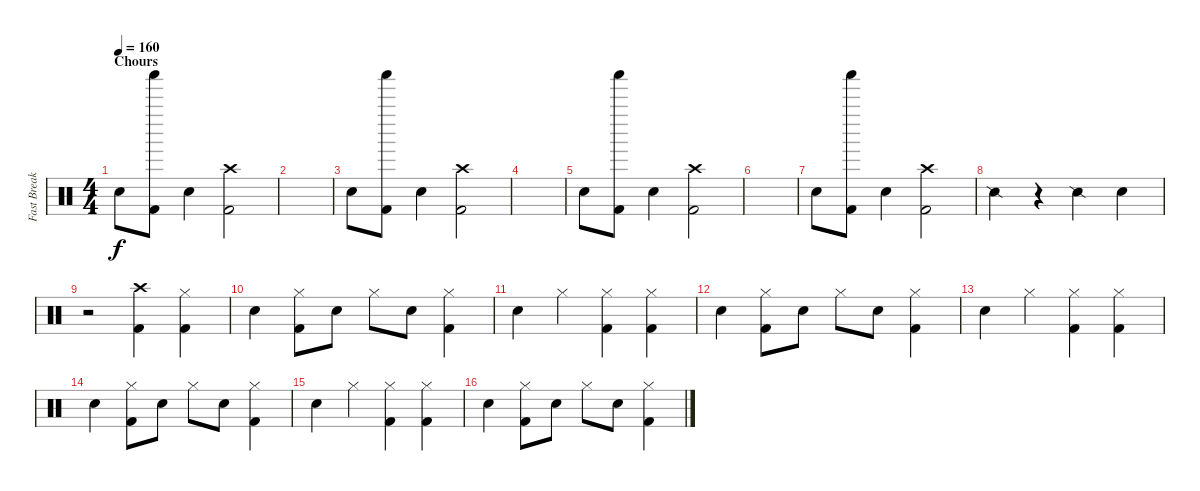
\track ("Fast Break Drums" "Fast Break") {instrument percussion}
\staff {score}
\articulation defaults
\ts (4 4)
\section ("" "Chours")
\tempo 160
\clef neutral
\ks c "Snare (hit) 2".8{dy f}
("Kick (hit) 2" "Shaker (hit)").8 "Snare (hit) 2".4 ("Kick (hit) 2" "Crash high (hit)").2 |
|
"Snare (hit) 2".8 ("Kick (hit) 2" "Shaker (hit)").8 "Snare (hit) 2".4 ("Kick (hit) 2" "Crash high (hit)").2 |
|
"Snare (hit) 2".8 ("Kick (hit) 2" "Shaker (hit)").8 "Snare (hit) 2".4 ("Kick (hit) 2" "Crash high (hit)").2 |
|
"Snare (hit) 2".8 ("Kick (hit) 2" "Shaker (hit)").8 "Snare (hit) 2".4 ("Kick (hit) 2" "Crash high (hit)").2 |
"Snare (side stick) 2".4 r.4 "Snare (side stick) 2".4 "Snare (hit) 2".4 |
r.2 ("Kick (hit) 2" "Crash high (hit)").4 ("Kick (hit) 2" "Hi-Hat (closed)").4 |
"Snare (hit) 2".4 ("Kick (hit) 2" "Hi-Hat (closed)").8 "Electric Snare (hit)".8 "Hi-Hat (closed)".8 "Electric Snare (hit)".8 ("Kick (hit) 2" "Hi-Hat (closed)").4 |
"Snare (hit) 2".4 "Hi-Hat (closed)".4 ("Kick (hit) 2" "Hi-Hat (closed)").4 ("Kick (hit) 2" "Hi-Hat (closed)").4 |
"Snare (hit) 2".4 ("Kick (hit) 2" "Hi-Hat (closed)").8 "Electric Snare (hit)".8 "Hi-Hat (closed)".8 "Electric Snare (hit)".8 ("Kick (hit) 2" "Hi-Hat (closed)").4 |
"Snare (hit) 2".4 "Hi-Hat (closed)".4 ("Kick (hit) 2" "Hi-Hat (closed)").4 ("Kick (hit) 2" "Hi-Hat (closed)").4 |
"Snare (hit) 2".4 ("Kick (hit) 2" "Hi-Hat (closed)").8 "Electric Snare (hit)".8 "Hi-Hat (closed)".8 "Electric Snare (hit)".8 ("Kick (hit) 2" "Hi-Hat (closed)").4 |
"Snare (hit) 2".4 "Hi-Hat (closed)".4 ("Kick (hit) 2" "Hi-Hat (closed)").4 ("Kick (hit) 2" "Hi-Hat (closed)").4 |
"Snare (hit) 2".4 ("Kick (hit) 2" "Hi-Hat (closed)").8 "Electric Snare (hit)".8 "Hi-Hat (closed)".8 "Electric Snare (hit)".8 ("Kick (hit) 2" "Hi-Hat (closed)").4
